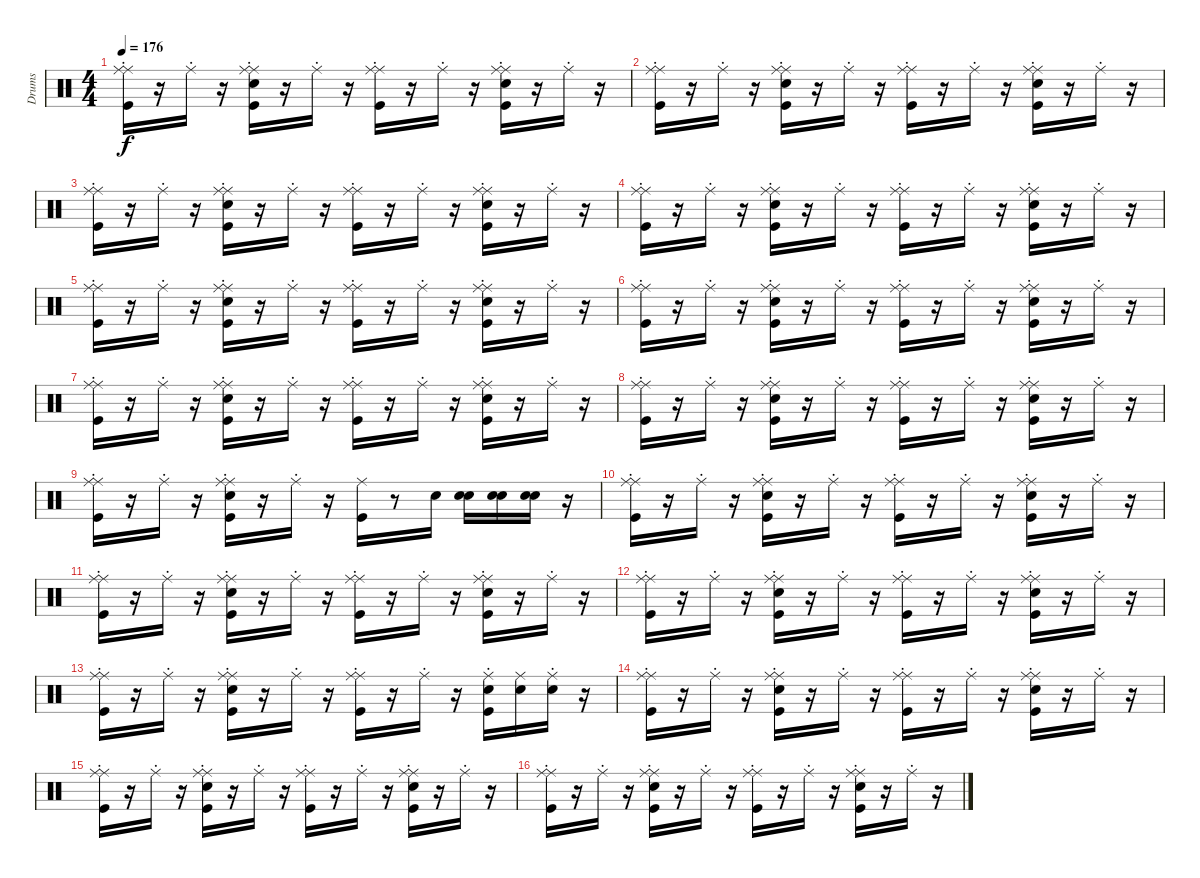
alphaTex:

\track ("Drums" "Drums") {instrument percussion}
\staff {score}
\articulation defaults
\ts (4 4)
\tempo 176
\clef neutral
\ks c
("Ride (middle)" "Kick (hit)" "Ride (choke)").16{dy f} r.16 "Ride (choke)".16 r.16 ("Ride (middle)" "Kick (hit)" "Snare (hit) 2" "Ride (choke)").16 r.16 "Ride (choke)".16 r.16 ("Ride (middle)" "Kick (hit)" "Ride (choke)").16 r.16 "Ride (choke)".16 r.16 ("Kick (hit)" "Snare (hit) 2" "Ride (choke)" "Ride (middle)").16 r.16 "Ride (choke)".16 r.16 |
("Ride (middle)" "Kick (hit)" "Ride (choke)").16 r.16 "Ride (choke)".16 r.16 ("Ride (middle)" "Kick (hit)" "Snare (hit) 2" "Ride (choke)").16 r.16 "Ride (choke)".16 r.16 ("Ride (middle)" "Kick (hit)" "Ride (choke)").16 r.16 "Ride (choke)".16 r.16 ("Ride (middle)" "Kick (hit)" "Snare (hit) 2" "Ride (choke)").16 r.16 "Ride (choke)".16 r.16 |
("Ride (middle)" "Kick (hit)" "Ride (choke)").16 r.16 "Ride (choke)".16 r.16 ("Ride (middle)" "Kick (hit)" "Snare (hit) 2" "Ride (choke)").16 r.16 "Ride (choke)".16 r.16 ("Ride (middle)" "Kick (hit)" "Ride (choke)").16 r.16 "Ride (choke)".16 r.16 ("Kick (hit)" "Snare (hit) 2" "Ride (choke)" "Ride (middle)").16 r.16 "Ride (choke)".16 r.16 |
("Ride (middle)" "Kick (hit)" "Ride (choke)").16 r.16 "Ride (choke)".16 r.16 ("Ride (middle)" "Kick (hit)" "Snare (hit) 2" "Ride (choke)").16 r.16 "Ride (choke)".16 r.16 ("Ride (middle)" "Kick (hit)" "Ride (choke)").16 r.16 "Ride (choke)".16 r.16 ("Ride (middle)" "Kick (hit)" "Snare (hit) 2" "Ride (choke)").16 r.16 "Ride (choke)".16 r.16 |
("Ride (middle)" "Kick (hit)" "Ride (choke)").16 r.16 "Ride (choke)".16 r.16 ("Ride (middle)" "Kick (hit)" "Snare (hit) 2" "Ride (choke)").16 r.16 "Ride (choke)".16 r.16 ("Ride (middle)" "Kick (hit)" "Ride (choke)").16 r.16 "Ride (choke)".16 r.16 ("Kick (hit)" "Snare (hit) 2" "Ride (choke)" "Ride (middle)").16 r.16 "Ride (choke)".16 r.16 |
("Ride (middle)" "Kick (hit)" "Ride (choke)").16 r.16 "Ride (choke)".16 r.16 ("Ride (middle)" "Kick (hit)" "Snare (hit) 2" "Ride (choke)").16 r.16 "Ride (choke)".16 r.16 ("Ride (middle)" "Kick (hit)" "Ride (choke)").16 r.16 "Ride (choke)".16 r.16 ("Ride (middle)" "Kick (hit)" "Snare (hit) 2" "Ride (choke)").16 r.16 "Ride (choke)".16 r.16 |
("Ride (middle)" "Kick (hit)" "Ride (choke)").16 r.16 "Ride (choke)".16 r.16 ("Ride (middle)" "Kick (hit)" "Snare (hit) 2" "Ride (choke)").16 r.16 "Ride (choke)".16 r.16 ("Ride (middle)" "Kick (hit)" "Ride (choke)").16 r.16 "Ride (choke)".16 r.16 ("Kick (hit)" "Snare (hit) 2" "Ride (choke)" "Ride (middle)").16 r.16 "Ride (choke)".16 r.16 |
("Ride (middle)" "Kick (hit)" "Ride (choke)").16 r.16 "Ride (choke)".16 r.16 ("Ride (middle)" "Kick (hit)" "Snare (hit) 2" "Ride (choke)").16 r.16 "Ride (choke)".16 r.16 ("Ride (middle)" "Kick (hit)" "Ride (choke)").16 r.16 "Ride (choke)".16 r.16 ("Ride (middle)" "Kick (hit)" "Snare (hit) 2" "Ride (choke)").16 r.16 "Ride (choke)".16 r.16 |
("Ride (middle)" "Kick (hit)" "Ride (choke)").16 r.16 "Ride (choke)".16 r.16 ("Ride (middle)" "Kick (hit)" "Snare (hit) 2" "Ride (choke)").16 r.16 "Ride (choke)".16 r.16 ("Ride (middle)" "Kick (hit)").16 r.8 "Snare (hit) 2".16 ("Snare (hit)" "Snare (hit) 2").16 ("Snare (hit)" "Snare (hit) 2").16 ("Snare (hit)" "Snare (hit) 2").16 r.16 |
("Ride (middle)" "Kick (hit)" "Ride (choke)").16 r.16 "Ride (choke)".16 r.16 ("Ride (middle)" "Kick (hit)" "Snare (hit) 2" "Ride (choke)").16 r.16 "Ride (choke)".16 r.16 ("Ride (middle)" "Kick (hit)" "Ride (choke)").16 r.16 "Ride (choke)".16 r.16 ("Ride (middle)" "Kick (hit)" "Snare (hit) 2" "Ride (choke)").16 r.16 "Ride (choke)".16 r.16 |
("Ride (middle)" "Kick (hit)" "Ride (choke)").16 r.16 "Ride (choke)".16 r.16 ("Ride (middle)" "Kick (hit)" "Snare (hit) 2" "Ride (choke)").16 r.16 "Ride (choke)".16 r.16 ("Ride (middle)" "Kick (hit)" "Ride (choke)").16 r.16 "Ride (choke)".16 r.16 ("Kick (hit)" "Snare (hit) 2" "Ride (choke)" "Ride (middle)").16 r.16 "Ride (choke)".16 r.16 |
("Ride (middle)" "Kick (hit)" "Ride (choke)").16 r.16 "Ride (choke)".16 r.16 ("Ride (middle)" "Kick (hit)" "Snare (hit) 2" "Ride (choke)").16 r.16 "Ride (choke)".16 r.16 ("Ride (middle)" "Kick (hit)" "Ride (choke)").16 r.16 "Ride (choke)".16 r.16 ("Ride (middle)" "Kick (hit)" "Snare (hit) 2" "Ride (choke)").16 r.16 "Ride (choke)".16 r.16 |
("Ride (middle)" "Kick (hit)" "Ride (choke)").16 r.16 "Ride (choke)".16 r.16 ("Ride (middle)" "Kick (hit)" "Snare (hit) 2" "Ride (choke)").16 r.16 "Ride (choke)".16 r.16 ("Ride (middle)" "Kick (hit)" "Ride (choke)").16 r.16 "Ride (choke)".16 r.16 ("Snare (hit) 2" "Kick (hit)" "Ride (choke)").16 ("Snare (hit)" "Ride (middle)").16 ("Snare (hit)" "Ride (choke)").16 r.16 |
("Ride (middle)" "Kick (hit)" "Ride (choke)").16 r.16 "Ride (choke)".16 r.16 ("Ride (middle)" "Kick (hit)" "Snare (hit) 2" "Ride (choke)").16 r.16 "Ride (choke)".16 r.16 ("Ride (middle)" "Kick (hit)" "Ride (choke)").16 r.16 "Ride (choke)".16 r.16 ("Ride (middle)" "Kick (hit)" "Snare (hit) 2" "Ride (choke)").16 r.16 "Ride (choke)".16 r.16 |
("Ride (middle)" "Kick (hit)" "Ride (choke)").16 r.16 "Ride (choke)".16 r.16 ("Ride (middle)" "Kick (hit)" "Snare (hit) 2" "Ride (choke)").16 r.16 "Ride (choke)".16 r.16 ("Ride (middle)" "Kick (hit)" "Ride (choke)").16 r.16 "Ride (choke)".16 r.16 ("Kick (hit)" "Snare (hit) 2" "Ride (choke)" "Ride (middle)").16 r.16 "Ride (choke)".16 r.16 |
("Ride (middle)" "Kick (hit)" "Ride (choke)").16 r.16 "Ride (choke)".16 r.16 ("Ride (middle)" "Kick (hit)" "Snare (hit) 2" "Ride (choke)").16 r.16 "Ride (choke)".16 r.16 ("Ride (middle)" "Kick (hit)" "Ride (choke)").16 r.16 "Ride (choke)".16 r.16 ("Ride (middle)" "Kick (hit)" "Snare (hit) 2" "Ride (choke)").16 r.16 "Ride (choke)".16 r.16
